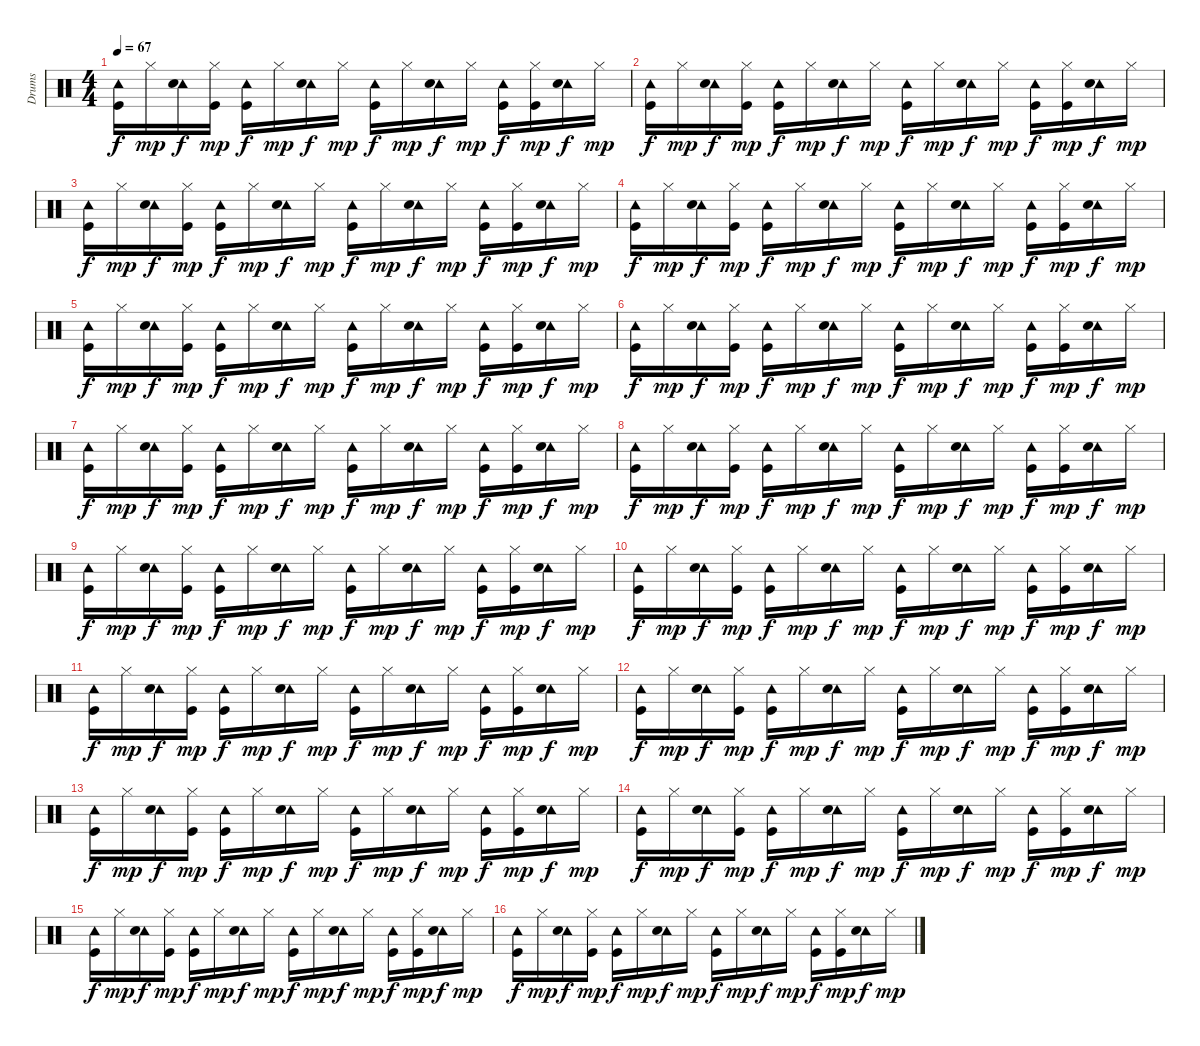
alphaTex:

\track ("Drums" "Drums") {instrument percussion}
\staff {score}
\articulation defaults
\ts (4 4)
\tempo 67
\clef neutral
\ks c
("Kick (hit)" "Tambourine (hit)").16{dy f} "Hi-Hat (closed)".16{dy mp} ("Tambourine (hit)" "Snare (hit) 2").16{dy f} ("Kick (hit)" "Hi-Hat (closed)").16{dy mp} ("Kick (hit)" "Tambourine (hit)").16{dy f} "Hi-Hat (closed)".16{dy mp} ("Tambourine (hit)" "Snare (hit) 2").16{dy f} "Hi-Hat (closed)".16{dy mp} ("Kick (hit)" "Tambourine (hit)").16{dy f} "Hi-Hat (closed)".16{dy mp} ("Tambourine (hit)" "Snare (hit) 2").16{dy f} "Hi-Hat (closed)".16{dy mp} ("Kick (hit)" "Tambourine (hit)").16{dy f} ("Kick (hit)" "Hi-Hat (closed)").16{dy mp} ("Tambourine (hit)" "Snare (hit) 2").16{dy f} "Hi-Hat (closed)".16{dy mp} |
("Kick (hit)" "Tambourine (hit)").16{dy f} "Hi-Hat (closed)".16{dy mp} ("Tambourine (hit)" "Snare (hit) 2").16{dy f} ("Kick (hit)" "Hi-Hat (closed)").16{dy mp} ("Kick (hit)" "Tambourine (hit)").16{dy f} "Hi-Hat (closed)".16{dy mp} ("Tambourine (hit)" "Snare (hit) 2").16{dy f} "Hi-Hat (closed)".16{dy mp} ("Kick (hit)" "Tambourine (hit)").16{dy f} "Hi-Hat (closed)".16{dy mp} ("Tambourine (hit)" "Snare (hit) 2").16{dy f} "Hi-Hat (closed)".16{dy mp} ("Kick (hit)" "Tambourine (hit)").16{dy f} ("Kick (hit)" "Hi-Hat (closed)").16{dy mp} ("Tambourine (hit)" "Snare (hit) 2").16{dy f} "Hi-Hat (closed)".16{dy mp} |
("Kick (hit)" "Tambourine (hit)").16{dy f} "Hi-Hat (closed)".16{dy mp} ("Tambourine (hit)" "Snare (hit) 2").16{dy f} ("Kick (hit)" "Hi-Hat (closed)").16{dy mp} ("Kick (hit)" "Tambourine (hit)").16{dy f} "Hi-Hat (closed)".16{dy mp} ("Tambourine (hit)" "Snare (hit) 2").16{dy f} "Hi-Hat (closed)".16{dy mp} ("Kick (hit)" "Tambourine (hit)").16{dy f} "Hi-Hat (closed)".16{dy mp} ("Tambourine (hit)" "Snare (hit) 2").16{dy f} "Hi-Hat (closed)".16{dy mp} ("Kick (hit)" "Tambourine (hit)").16{dy f} ("Kick (hit)" "Hi-Hat (closed)").16{dy mp} ("Tambourine (hit)" "Snare (hit) 2").16{dy f} "Hi-Hat (closed)".16{dy mp} |
("Kick (hit)" "Tambourine (hit)").16{dy f} "Hi-Hat (closed)".16{dy mp} ("Tambourine (hit)" "Snare (hit) 2").16{dy f} ("Kick (hit)" "Hi-Hat (closed)").16{dy mp} ("Kick (hit)" "Tambourine (hit)").16{dy f} "Hi-Hat (closed)".16{dy mp} ("Tambourine (hit)" "Snare (hit) 2").16{dy f} "Hi-Hat (closed)".16{dy mp} ("Kick (hit)" "Tambourine (hit)").16{dy f} "Hi-Hat (closed)".16{dy mp} ("Tambourine (hit)" "Snare (hit) 2").16{dy f} "Hi-Hat (closed)".16{dy mp} ("Kick (hit)" "Tambourine (hit)").16{dy f} ("Kick (hit)" "Hi-Hat (closed)").16{dy mp} ("Tambourine (hit)" "Snare (hit) 2").16{dy f} "Hi-Hat (closed)".16{dy mp} |
("Kick (hit)" "Tambourine (hit)").16{dy f} "Hi-Hat (closed)".16{dy mp} ("Tambourine (hit)" "Snare (hit) 2").16{dy f} ("Kick (hit)" "Hi-Hat (closed)").16{dy mp} ("Kick (hit)" "Tambourine (hit)").16{dy f} "Hi-Hat (closed)".16{dy mp} ("Tambourine (hit)" "Snare (hit) 2").16{dy f} "Hi-Hat (closed)".16{dy mp} ("Kick (hit)" "Tambourine (hit)").16{dy f} "Hi-Hat (closed)".16{dy mp} ("Tambourine (hit)" "Snare (hit) 2").16{dy f} "Hi-Hat (closed)".16{dy mp} ("Kick (hit)" "Tambourine (hit)").16{dy f} ("Kick (hit)" "Hi-Hat (closed)").16{dy mp} ("Tambourine (hit)" "Snare (hit) 2").16{dy f} "Hi-Hat (closed)".16{dy mp} |
("Kick (hit)" "Tambourine (hit)").16{dy f} "Hi-Hat (closed)".16{dy mp} ("Tambourine (hit)" "Snare (hit) 2").16{dy f} ("Kick (hit)" "Hi-Hat (closed)").16{dy mp} ("Kick (hit)" "Tambourine (hit)").16{dy f} "Hi-Hat (closed)".16{dy mp} ("Tambourine (hit)" "Snare (hit) 2").16{dy f} "Hi-Hat (closed)".16{dy mp} ("Kick (hit)" "Tambourine (hit)").16{dy f} "Hi-Hat (closed)".16{dy mp} ("Tambourine (hit)" "Snare (hit) 2").16{dy f} "Hi-Hat (closed)".16{dy mp} ("Kick (hit)" "Tambourine (hit)").16{dy f} ("Kick (hit)" "Hi-Hat (closed)").16{dy mp} ("Tambourine (hit)" "Snare (hit) 2").16{dy f} "Hi-Hat (closed)".16{dy mp} |
("Kick (hit)" "Tambourine (hit)").16{dy f} "Hi-Hat (closed)".16{dy mp} ("Tambourine (hit)" "Snare (hit) 2").16{dy f} ("Kick (hit)" "Hi-Hat (closed)").16{dy mp} ("Kick (hit)" "Tambourine (hit)").16{dy f} "Hi-Hat (closed)".16{dy mp} ("Tambourine (hit)" "Snare (hit) 2").16{dy f} "Hi-Hat (closed)".16{dy mp} ("Kick (hit)" "Tambourine (hit)").16{dy f} "Hi-Hat (closed)".16{dy mp} ("Tambourine (hit)" "Snare (hit) 2").16{dy f} "Hi-Hat (closed)".16{dy mp} ("Kick (hit)" "Tambourine (hit)").16{dy f} ("Kick (hit)" "Hi-Hat (closed)").16{dy mp} ("Tambourine (hit)" "Snare (hit) 2").16{dy f} "Hi-Hat (closed)".16{dy mp} |
("Kick (hit)" "Tambourine (hit)").16{dy f} "Hi-Hat (closed)".16{dy mp} ("Tambourine (hit)" "Snare (hit) 2").16{dy f} ("Kick (hit)" "Hi-Hat (closed)").16{dy mp} ("Kick (hit)" "Tambourine (hit)").16{dy f} "Hi-Hat (closed)".16{dy mp} ("Tambourine (hit)" "Snare (hit) 2").16{dy f} "Hi-Hat (closed)".16{dy mp} ("Kick (hit)" "Tambourine (hit)").16{dy f} "Hi-Hat (closed)".16{dy mp} ("Tambourine (hit)" "Snare (hit) 2").16{dy f} "Hi-Hat (closed)".16{dy mp} ("Kick (hit)" "Tambourine (hit)").16{dy f} ("Kick (hit)" "Hi-Hat (closed)").16{dy mp} ("Tambourine (hit)" "Snare (hit) 2").16{dy f} "Hi-Hat (closed)".16{dy mp} |
("Kick (hit)" "Tambourine (hit)").16{dy f} "Hi-Hat (closed)".16{dy mp} ("Tambourine (hit)" "Snare (hit) 2").16{dy f} ("Kick (hit)" "Hi-Hat (closed)").16{dy mp} ("Kick (hit)" "Tambourine (hit)").16{dy f} "Hi-Hat (closed)".16{dy mp} ("Tambourine (hit)" "Snare (hit) 2").16{dy f} "Hi-Hat (closed)".16{dy mp} ("Kick (hit)" "Tambourine (hit)").16{dy f} "Hi-Hat (closed)".16{dy mp} ("Tambourine (hit)" "Snare (hit) 2").16{dy f} "Hi-Hat (closed)".16{dy mp} ("Kick (hit)" "Tambourine (hit)").16{dy f} ("Kick (hit)" "Hi-Hat (closed)").16{dy mp} ("Tambourine (hit)" "Snare (hit) 2").16{dy f} "Hi-Hat (closed)".16{dy mp} |
("Kick (hit)" "Tambourine (hit)").16{dy f} "Hi-Hat (closed)".16{dy mp} ("Tambourine (hit)" "Snare (hit) 2").16{dy f} ("Kick (hit)" "Hi-Hat (closed)").16{dy mp} ("Kick (hit)" "Tambourine (hit)").16{dy f} "Hi-Hat (closed)".16{dy mp} ("Tambourine (hit)" "Snare (hit) 2").16{dy f} "Hi-Hat (closed)".16{dy mp} ("Kick (hit)" "Tambourine (hit)").16{dy f} "Hi-Hat (closed)".16{dy mp} ("Tambourine (hit)" "Snare (hit) 2").16{dy f} "Hi-Hat (closed)".16{dy mp} ("Kick (hit)" "Tambourine (hit)").16{dy f} ("Kick (hit)" "Hi-Hat (closed)").16{dy mp} ("Tambourine (hit)" "Snare (hit) 2").16{dy f} "Hi-Hat (closed)".16{dy mp} |
("Kick (hit)" "Tambourine (hit)").16{dy f} "Hi-Hat (closed)".16{dy mp} ("Tambourine (hit)" "Snare (hit) 2").16{dy f} ("Kick (hit)" "Hi-Hat (closed)").16{dy mp} ("Kick (hit)" "Tambourine (hit)").16{dy f} "Hi-Hat (closed)".16{dy mp} ("Tambourine (hit)" "Snare (hit) 2").16{dy f} "Hi-Hat (closed)".16{dy mp} ("Kick (hit)" "Tambourine (hit)").16{dy f} "Hi-Hat (closed)".16{dy mp} ("Tambourine (hit)" "Snare (hit) 2").16{dy f} "Hi-Hat (closed)".16{dy mp} ("Kick (hit)" "Tambourine (hit)").16{dy f} ("Kick (hit)" "Hi-Hat (closed)").16{dy mp} ("Tambourine (hit)" "Snare (hit) 2").16{dy f} "Hi-Hat (closed)".16{dy mp} |
("Kick (hit)" "Tambourine (hit)").16{dy f} "Hi-Hat (closed)".16{dy mp} ("Tambourine (hit)" "Snare (hit) 2").16{dy f} ("Kick (hit)" "Hi-Hat (closed)").16{dy mp} ("Kick (hit)" "Tambourine (hit)").16{dy f} "Hi-Hat (closed)".16{dy mp} ("Tambourine (hit)" "Snare (hit) 2").16{dy f} "Hi-Hat (closed)".16{dy mp} ("Kick (hit)" "Tambourine (hit)").16{dy f} "Hi-Hat (closed)".16{dy mp} ("Tambourine (hit)" "Snare (hit) 2").16{dy f} "Hi-Hat (closed)".16{dy mp} ("Kick (hit)" "Tambourine (hit)").16{dy f} ("Kick (hit)" "Hi-Hat (closed)").16{dy mp} ("Tambourine (hit)" "Snare (hit) 2").16{dy f} "Hi-Hat (closed)".16{dy mp} |
("Kick (hit)" "Tambourine (hit)").16{dy f} "Hi-Hat (closed)".16{dy mp} ("Tambourine (hit)" "Snare (hit) 2").16{dy f} ("Kick (hit)" "Hi-Hat (closed)").16{dy mp} ("Kick (hit)" "Tambourine (hit)").16{dy f} "Hi-Hat (closed)".16{dy mp} ("Tambourine (hit)" "Snare (hit) 2").16{dy f} "Hi-Hat (closed)".16{dy mp} ("Kick (hit)" "Tambourine (hit)").16{dy f} "Hi-Hat (closed)".16{dy mp} ("Tambourine (hit)" "Snare (hit) 2").16{dy f} "Hi-Hat (closed)".16{dy mp} ("Kick (hit)" "Tambourine (hit)").16{dy f} ("Kick (hit)" "Hi-Hat (closed)").16{dy mp} ("Tambourine (hit)" "Snare (hit) 2").16{dy f} "Hi-Hat (closed)".16{dy mp} |
("Kick (hit)" "Tambourine (hit)").16{dy f} "Hi-Hat (closed)".16{dy mp} ("Tambourine (hit)" "Snare (hit) 2").16{dy f} ("Kick (hit)" "Hi-Hat (closed)").16{dy mp} ("Kick (hit)" "Tambourine (hit)").16{dy f} "Hi-Hat (closed)".16{dy mp} ("Tambourine (hit)" "Snare (hit) 2").16{dy f} "Hi-Hat (closed)".16{dy mp} ("Kick (hit)" "Tambourine (hit)").16{dy f} "Hi-Hat (closed)".16{dy mp} ("Tambourine (hit)" "Snare (hit) 2").16{dy f} "Hi-Hat (closed)".16{dy mp} ("Kick (hit)" "Tambourine (hit)").16{dy f} ("Kick (hit)" "Hi-Hat (closed)").16{dy mp} ("Tambourine (hit)" "Snare (hit) 2").16{dy f} "Hi-Hat (closed)".16{dy mp} |
("Kick (hit)" "Tambourine (hit)").16{dy f} "Hi-Hat (closed)".16{dy mp} ("Tambourine (hit)" "Snare (hit) 2").16{dy f} ("Kick (hit)" "Hi-Hat (closed)").16{dy mp} ("Kick (hit)" "Tambourine (hit)").16{dy f} "Hi-Hat (closed)".16{dy mp} ("Tambourine (hit)" "Snare (hit) 2").16{dy f} "Hi-Hat (closed)".16{dy mp} ("Kick (hit)" "Tambourine (hit)").16{dy f} "Hi-Hat (closed)".16{dy mp} ("Tambourine (hit)" "Snare (hit) 2").16{dy f} "Hi-Hat (closed)".16{dy mp} ("Kick (hit)" "Tambourine (hit)").16{dy f} ("Kick (hit)" "Hi-Hat (closed)").16{dy mp} ("Tambourine (hit)" "Snare (hit) 2").16{dy f} "Hi-Hat (closed)".16{dy mp} |
("Kick (hit)" "Tambourine (hit)").16{dy f} "Hi-Hat (closed)".16{dy mp} ("Tambourine (hit)" "Snare (hit) 2").16{dy f} ("Kick (hit)" "Hi-Hat (closed)").16{dy mp} ("Kick (hit)" "Tambourine (hit)").16{dy f} "Hi-Hat (closed)".16{dy mp} ("Tambourine (hit)" "Snare (hit) 2").16{dy f} "Hi-Hat (closed)".16{dy mp} ("Kick (hit)" "Tambourine (hit)").16{dy f} "Hi-Hat (closed)".16{dy mp} ("Tambourine (hit)" "Snare (hit) 2").16{dy f} "Hi-Hat (closed)".16{dy mp} ("Kick (hit)" "Tambourine (hit)").16{dy f} ("Kick (hit)" "Hi-Hat (closed)").16{dy mp} ("Tambourine (hit)" "Snare (hit) 2").16{dy f} "Hi-Hat (closed)".16{dy mp}
